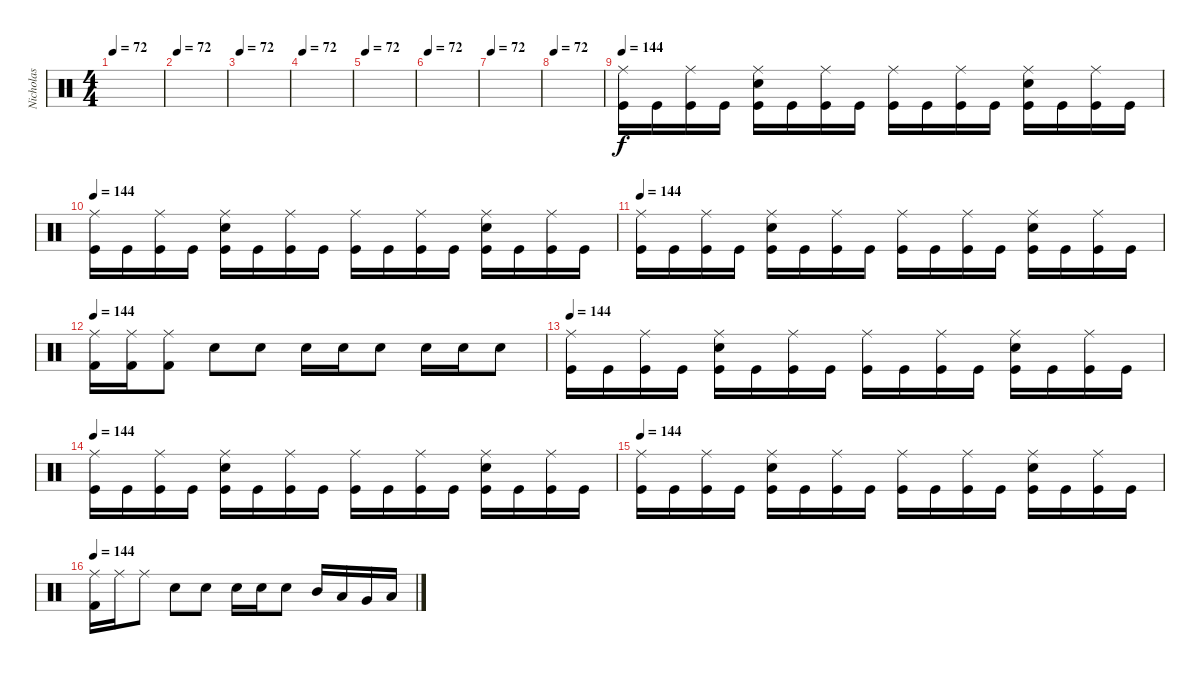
\track ("Nicholas" "Nicholas") {instrument percussion}
\staff {score}
\articulation defaults
\ts (4 4)
\tempo 72
\clef neutral
\ks c
|
\tempo 72
|
\tempo 72
|
\tempo 72
|
\tempo 72
|
\tempo 72
|
\tempo 72
|
\tempo 72
|
\tempo 144
("Kick (hit)" "Ride (middle)").16 "Kick (hit)".16 ("Kick (hit)" "Ride (middle)").16 "Kick (hit)".16 ("Kick (hit)" "Snare (hit) 2" "Ride (middle)").16 "Kick (hit)".16 ("Kick (hit)" "Ride (middle)").16 "Kick (hit)".16 ("Kick (hit)" "Ride (middle)").16 "Kick (hit)".16 ("Kick (hit)" "Ride (middle)").16 "Kick (hit)".16 ("Kick (hit)" "Snare (hit) 2" "Ride (middle)").16 "Kick (hit)".16 ("Kick (hit)" "Ride (middle)").16 "Kick (hit)".16 |
\tempo 144
("Kick (hit)" "Ride (middle)").16 "Kick (hit)".16 ("Kick (hit)" "Ride (middle)").16 "Kick (hit)".16 ("Kick (hit)" "Snare (hit) 2" "Ride (middle)").16 "Kick (hit)".16 ("Kick (hit)" "Ride (middle)").16 "Kick (hit)".16 ("Kick (hit)" "Ride (middle)").16 "Kick (hit)".16 ("Kick (hit)" "Ride (middle)").16 "Kick (hit)".16 ("Kick (hit)" "Snare (hit) 2" "Ride (middle)").16 "Kick (hit)".16 ("Kick (hit)" "Ride (middle)").16 "Kick (hit)".16 |
\tempo 144
("Kick (hit)" "Ride (middle)").16 "Kick (hit)".16 ("Kick (hit)" "Ride (middle)").16 "Kick (hit)".16 ("Kick (hit)" "Snare (hit) 2" "Ride (middle)").16 "Kick (hit)".16 ("Kick (hit)" "Ride (middle)").16 "Kick (hit)".16 ("Kick (hit)" "Ride (middle)").16 "Kick (hit)".16 ("Kick (hit)" "Ride (middle)").16 "Kick (hit)".16 ("Kick (hit)" "Snare (hit) 2" "Ride (middle)").16 "Kick (hit)".16 ("Kick (hit)" "Ride (middle)").16 "Kick (hit)".16 |
\tempo 144
("Kick (hit) 2" "Ride (middle)").16 ("Kick (hit) 2" "Ride (middle)").16 ("Kick (hit) 2" "Ride (middle)").8 "Snare (hit) 2".8 "Snare (hit) 2".8 "Snare (hit) 2".16 "Snare (hit) 2".16 "Snare (hit) 2".8 "Snare (hit) 2".16 "Snare (hit) 2".16 "Snare (hit) 2".8 |
\tempo 144
("Kick (hit)" "Ride (middle)").16 "Kick (hit)".16 ("Kick (hit)" "Ride (middle)").16 "Kick (hit)".16 ("Kick (hit)" "Snare (hit) 2" "Ride (middle)").16 "Kick (hit)".16 ("Kick (hit)" "Ride (middle)").16 "Kick (hit)".16 ("Kick (hit)" "Ride (middle)").16 "Kick (hit)".16 ("Kick (hit)" "Ride (middle)").16 "Kick (hit)".16 ("Kick (hit)" "Snare (hit) 2" "Ride (middle)").16 "Kick (hit)".16 ("Kick (hit)" "Ride (middle)").16 "Kick (hit)".16 |
\tempo 144
("Kick (hit)" "Ride (middle)").16 "Kick (hit)".16 ("Kick (hit)" "Ride (middle)").16 "Kick (hit)".16 ("Kick (hit)" "Snare (hit) 2" "Ride (middle)").16 "Kick (hit)".16 ("Kick (hit)" "Ride (middle)").16 "Kick (hit)".16 ("Kick (hit)" "Ride (middle)").16 "Kick (hit)".16 ("Kick (hit)" "Ride (middle)").16 "Kick (hit)".16 ("Kick (hit)" "Snare (hit) 2" "Ride (middle)").16 "Kick (hit)".16 ("Kick (hit)" "Ride (middle)").16 "Kick (hit)".16 |
\tempo 144
("Kick (hit)" "Ride (middle)").16 "Kick (hit)".16 ("Kick (hit)" "Ride (middle)").16 "Kick (hit)".16 ("Kick (hit)" "Snare (hit) 2" "Ride (middle)").16 "Kick (hit)".16 ("Kick (hit)" "Ride (middle)").16 "Kick (hit)".16 ("Kick (hit)" "Ride (middle)").16 "Kick (hit)".16 ("Kick (hit)" "Ride (middle)").16 "Kick (hit)".16 ("Kick (hit)" "Snare (hit) 2" "Ride (middle)").16 "Kick (hit)".16 ("Kick (hit)" "Ride (middle)").16 "Kick (hit)".16 |
\tempo 144
("Kick (hit) 2" "Ride (middle)").16 "Ride (middle)".16 "Ride (middle)".8 "Snare (hit) 2".8 "Snare (hit) 2".8 "Snare (hit) 2".16 "Snare (hit) 2".16 "Snare (hit) 2".8 "Mid Tom (hit)".16 "Low Tom (hit)".16 "Very Low Tom (hit)".16 "Low Floor Tom (hit)".16
